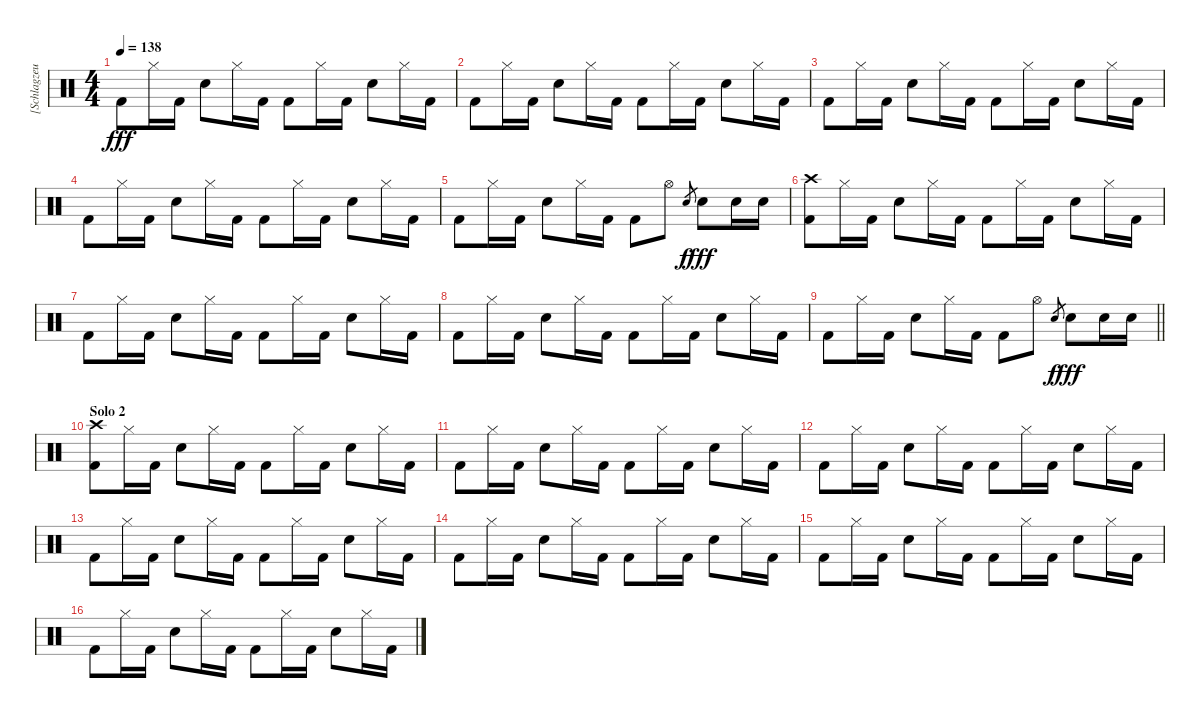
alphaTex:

\track ("[Schlagzeug]" "[Schlagzeu") {instrument percussion}
\staff {score}
\articulation defaults
\ts (4 4)
\tempo 138
\clef neutral
\ks c "Kick (hit) 2".8{dy fff} "Hi-Hat (closed)".16 "Kick (hit) 2".16 "Electric Snare (hit)".8 "Hi-Hat (closed)".16 "Kick (hit) 2".16 "Kick (hit) 2".8 "Hi-Hat (closed)".16 "Kick (hit) 2".16 "Electric Snare (hit)".8 "Hi-Hat (closed)".16 "Kick (hit) 2".16
|
"Kick (hit) 2".8 "Hi-Hat (closed)".16 "Kick (hit) 2".16 "Electric Snare (hit)".8 "Hi-Hat (closed)".16 "Kick (hit) 2".16 "Kick (hit) 2".8 "Hi-Hat (closed)".16 "Kick (hit) 2".16 "Electric Snare (hit)".8 "Hi-Hat (closed)".16 "Kick (hit) 2".16 |
"Kick (hit) 2".8 "Hi-Hat (closed)".16 "Kick (hit) 2".16 "Electric Snare (hit)".8 "Hi-Hat (closed)".16 "Kick (hit) 2".16 "Kick (hit) 2".8 "Hi-Hat (closed)".16 "Kick (hit) 2".16 "Electric Snare (hit)".8 "Hi-Hat (closed)".16 "Kick (hit) 2".16 |
"Kick (hit) 2".8 "Hi-Hat (closed)".16 "Kick (hit) 2".16 "Electric Snare (hit)".8 "Hi-Hat (closed)".16 "Kick (hit) 2".16 "Kick (hit) 2".8 "Hi-Hat (closed)".16 "Kick (hit) 2".16 "Electric Snare (hit)".8 "Hi-Hat (closed)".16 "Kick (hit) 2".16 |
"Kick (hit) 2".8 "Hi-Hat (closed)".16 "Kick (hit) 2".16 "Electric Snare (hit)".8 "Hi-Hat (closed)".16 "Kick (hit) 2".16 "Kick (hit) 2".8 "Hi-Hat (open)".8 "Electric Snare (hit)".8{gr dy f} "Electric Snare (hit)".8{dy fff} "Electric Snare (hit)".16 "Electric Snare (hit)".16 |
("Crash high (hit)" "Kick (hit) 2").8 "Hi-Hat (closed)".16 "Kick (hit) 2".16 "Electric Snare (hit)".8 "Hi-Hat (closed)".16 "Kick (hit) 2".16 "Kick (hit) 2".8 "Hi-Hat (closed)".16 "Kick (hit) 2".16 "Electric Snare (hit)".8 "Hi-Hat (closed)".16 "Kick (hit) 2".16 |
"Kick (hit) 2".8 "Hi-Hat (closed)".16 "Kick (hit) 2".16 "Electric Snare (hit)".8 "Hi-Hat (closed)".16 "Kick (hit) 2".16 "Kick (hit) 2".8 "Hi-Hat (closed)".16 "Kick (hit) 2".16 "Electric Snare (hit)".8 "Hi-Hat (closed)".16 "Kick (hit) 2".16 |
"Kick (hit) 2".8 "Hi-Hat (closed)".16 "Kick (hit) 2".16 "Electric Snare (hit)".8 "Hi-Hat (closed)".16 "Kick (hit) 2".16 "Kick (hit) 2".8 "Hi-Hat (closed)".16 "Kick (hit) 2".16 "Electric Snare (hit)".8 "Hi-Hat (closed)".16 "Kick (hit) 2".16 |
\barLineRight lightlight "Kick (hit) 2".8 "Hi-Hat (closed)".16 "Kick (hit) 2".16 "Electric Snare (hit)".8 "Hi-Hat (closed)".16 "Kick (hit) 2".16 "Kick (hit) 2".8 "Hi-Hat (open)".8 "Electric Snare (hit)".8{gr dy f} "Electric Snare (hit)".8{dy fff} "Electric Snare (hit)".16 "Electric Snare (hit)".16
|
\section ("" "Solo 2")
("Crash high (hit)" "Kick (hit) 2").8 "Hi-Hat (closed)".16 "Kick (hit) 2".16 "Electric Snare (hit)".8 "Hi-Hat (closed)".16 "Kick (hit) 2".16 "Kick (hit) 2".8 "Hi-Hat (closed)".16 "Kick (hit) 2".16 "Electric Snare (hit)".8 "Hi-Hat (closed)".16 "Kick (hit) 2".16 |
"Kick (hit) 2".8 "Hi-Hat (closed)".16 "Kick (hit) 2".16 "Electric Snare (hit)".8 "Hi-Hat (closed)".16 "Kick (hit) 2".16 "Kick (hit) 2".8 "Hi-Hat (closed)".16 "Kick (hit) 2".16 "Electric Snare (hit)".8 "Hi-Hat (closed)".16 "Kick (hit) 2".16 |
"Kick (hit) 2".8 "Hi-Hat (closed)".16 "Kick (hit) 2".16 "Electric Snare (hit)".8 "Hi-Hat (closed)".16 "Kick (hit) 2".16 "Kick (hit) 2".8 "Hi-Hat (closed)".16 "Kick (hit) 2".16 "Electric Snare (hit)".8 "Hi-Hat (closed)".16 "Kick (hit) 2".16 |
"Kick (hit) 2".8 "Hi-Hat (closed)".16 "Kick (hit) 2".16 "Electric Snare (hit)".8 "Hi-Hat (closed)".16 "Kick (hit) 2".16 "Kick (hit) 2".8 "Hi-Hat (closed)".16 "Kick (hit) 2".16 "Electric Snare (hit)".8 "Hi-Hat (closed)".16 "Kick (hit) 2".16 |
"Kick (hit) 2".8 "Hi-Hat (closed)".16 "Kick (hit) 2".16 "Electric Snare (hit)".8 "Hi-Hat (closed)".16 "Kick (hit) 2".16 "Kick (hit) 2".8 "Hi-Hat (closed)".16 "Kick (hit) 2".16 "Electric Snare (hit)".8 "Hi-Hat (closed)".16 "Kick (hit) 2".16 |
"Kick (hit) 2".8 "Hi-Hat (closed)".16 "Kick (hit) 2".16 "Electric Snare (hit)".8 "Hi-Hat (closed)".16 "Kick (hit) 2".16 "Kick (hit) 2".8 "Hi-Hat (closed)".16 "Kick (hit) 2".16 "Electric Snare (hit)".8 "Hi-Hat (closed)".16 "Kick (hit) 2".16 |
"Kick (hit) 2".8 "Hi-Hat (closed)".16 "Kick (hit) 2".16 "Electric Snare (hit)".8 "Hi-Hat (closed)".16 "Kick (hit) 2".16 "Kick (hit) 2".8 "Hi-Hat (closed)".16 "Kick (hit) 2".16 "Electric Snare (hit)".8 "Hi-Hat (closed)".16 "Kick (hit) 2".16
